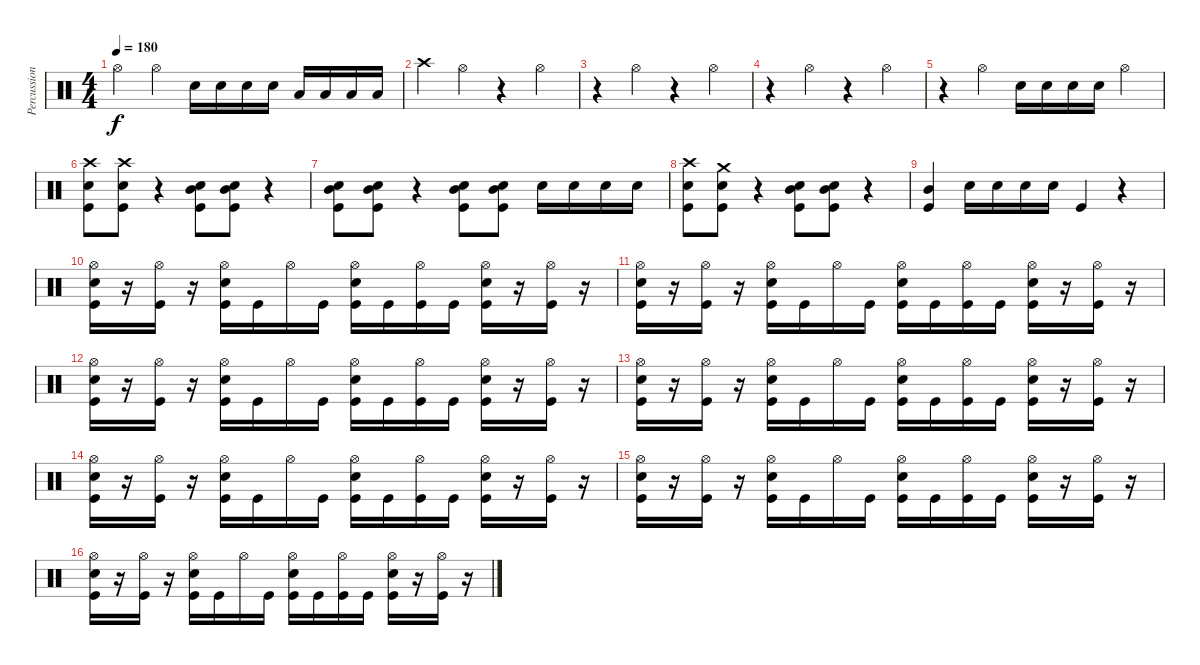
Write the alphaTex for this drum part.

\track ("Percussion" "Percussion") {instrument percussion}
\staff {score}
\articulation defaults
\ts (4 4)
\tempo 180
\clef neutral
\ks c "Hi-Hat (open)".4{dy f} "Hi-Hat (open)".4 "Electric Snare (hit)".16 "Electric Snare (hit)".16 "Electric Snare (hit)".16 "Electric Snare (hit)".16 "Low Tom (hit)".16 "Low Tom (hit)".16 "Low Tom (hit)".16 "Low Tom (hit)".16
|
"Crash high (hit)".4 "Hi-Hat (open)".4 r.4 "Hi-Hat (open)".4 |
r.4 "Hi-Hat (open)".4 r.4 "Hi-Hat (open)".4 |
r.4 "Hi-Hat (open)".4 r.4 "Hi-Hat (open)".4 |
r.4 "Hi-Hat (open)".4 "Snare (hit) 2".16 "Snare (hit) 2".16 "Snare (hit) 2".16 "Snare (hit) 2".16 "Hi-Hat (open)".4 |
("Crash high (hit)" "Snare (hit) 2" "Kick (hit)").8 ("Crash high (hit)" "Snare (hit) 2" "Kick (hit)").8 r.4 ("Mid Tom (hit)" "Snare (hit) 2" "Kick (hit)").8 ("Mid Tom (hit)" "Snare (hit) 2" "Kick (hit)").8 r.4 |
("Mid Tom (hit)" "Snare (hit) 2" "Kick (hit)").8 ("Mid Tom (hit)" "Snare (hit) 2" "Kick (hit)").8 r.4 ("Mid Tom (hit)" "Snare (hit) 2" "Kick (hit)").8 ("Mid Tom (hit)" "Snare (hit) 2" "Kick (hit)").8 "Snare (hit) 2".16 "Snare (hit) 2".16 "Snare (hit) 2".16 "Snare (hit) 2".16 |
("Crash high (hit)" "Snare (hit) 2" "Kick (hit)").8 ("Crash medium (hit)" "Snare (hit) 2" "Kick (hit)").8 r.4 ("Mid Tom (hit)" "Snare (hit) 2" "Kick (hit)").8 ("Mid Tom (hit)" "Snare (hit) 2" "Kick (hit)").8 r.4 |
("Mid Tom (hit)" "Kick (hit)").4 "Snare (hit) 2".16 "Snare (hit) 2".16 "Snare (hit) 2".16 "Snare (hit) 2".16 "Kick (hit)".4 r.4 |
("Hi-Hat (open)" "Snare (hit) 2" "Kick (hit)").16 r.16 ("Hi-Hat (open)" "Kick (hit)").16 r.16 ("Hi-Hat (open)" "Snare (hit) 2" "Kick (hit)").16 "Kick (hit)".16 "Hi-Hat (open)".16 "Kick (hit)".16 ("Hi-Hat (open)" "Snare (hit) 2" "Kick (hit)").16 "Kick (hit)".16 ("Hi-Hat (open)" "Kick (hit)").16 "Kick (hit)".16 ("Hi-Hat (open)" "Snare (hit) 2" "Kick (hit)").16 r.16 ("Hi-Hat (open)" "Kick (hit)").16 r.16 |
("Hi-Hat (open)" "Snare (hit) 2" "Kick (hit)").16 r.16 ("Hi-Hat (open)" "Kick (hit)").16 r.16 ("Hi-Hat (open)" "Snare (hit) 2" "Kick (hit)").16 "Kick (hit)".16 "Hi-Hat (open)".16 "Kick (hit)".16 ("Hi-Hat (open)" "Snare (hit) 2" "Kick (hit)").16 "Kick (hit)".16 ("Hi-Hat (open)" "Kick (hit)").16 "Kick (hit)".16 ("Hi-Hat (open)" "Snare (hit) 2" "Kick (hit)").16 r.16 ("Hi-Hat (open)" "Kick (hit)").16 r.16 |
("Hi-Hat (open)" "Snare (hit) 2" "Kick (hit)").16 r.16 ("Hi-Hat (open)" "Kick (hit)").16 r.16 ("Hi-Hat (open)" "Snare (hit) 2" "Kick (hit)").16 "Kick (hit)".16 "Hi-Hat (open)".16 "Kick (hit)".16 ("Hi-Hat (open)" "Snare (hit) 2" "Kick (hit)").16 "Kick (hit)".16 ("Hi-Hat (open)" "Kick (hit)").16 "Kick (hit)".16 ("Hi-Hat (open)" "Snare (hit) 2" "Kick (hit)").16 r.16 ("Hi-Hat (open)" "Kick (hit)").16 r.16 |
("Hi-Hat (open)" "Snare (hit) 2" "Kick (hit)").16 r.16 ("Hi-Hat (open)" "Kick (hit)").16 r.16 ("Hi-Hat (open)" "Snare (hit) 2" "Kick (hit)").16 "Kick (hit)".16 "Hi-Hat (open)".16 "Kick (hit)".16 ("Hi-Hat (open)" "Snare (hit) 2" "Kick (hit)").16 "Kick (hit)".16 ("Hi-Hat (open)" "Kick (hit)").16 "Kick (hit)".16 ("Hi-Hat (open)" "Snare (hit) 2" "Kick (hit)").16 r.16 ("Hi-Hat (open)" "Kick (hit)").16 r.16 |
("Hi-Hat (open)" "Snare (hit) 2" "Kick (hit)").16 r.16 ("Hi-Hat (open)" "Kick (hit)").16 r.16 ("Hi-Hat (open)" "Snare (hit) 2" "Kick (hit)").16 "Kick (hit)".16 "Hi-Hat (open)".16 "Kick (hit)".16 ("Hi-Hat (open)" "Snare (hit) 2" "Kick (hit)").16 "Kick (hit)".16 ("Hi-Hat (open)" "Kick (hit)").16 "Kick (hit)".16 ("Hi-Hat (open)" "Snare (hit) 2" "Kick (hit)").16 r.16 ("Hi-Hat (open)" "Kick (hit)").16 r.16 |
("Hi-Hat (open)" "Snare (hit) 2" "Kick (hit)").16 r.16 ("Hi-Hat (open)" "Kick (hit)").16 r.16 ("Hi-Hat (open)" "Snare (hit) 2" "Kick (hit)").16 "Kick (hit)".16 "Hi-Hat (open)".16 "Kick (hit)".16 ("Hi-Hat (open)" "Snare (hit) 2" "Kick (hit)").16 "Kick (hit)".16 ("Hi-Hat (open)" "Kick (hit)").16 "Kick (hit)".16 ("Hi-Hat (open)" "Snare (hit) 2" "Kick (hit)").16 r.16 ("Hi-Hat (open)" "Kick (hit)").16 r.16 |
("Hi-Hat (open)" "Snare (hit) 2" "Kick (hit)").16 r.16 ("Hi-Hat (open)" "Kick (hit)").16 r.16 ("Hi-Hat (open)" "Snare (hit) 2" "Kick (hit)").16 "Kick (hit)".16 "Hi-Hat (open)".16 "Kick (hit)".16 ("Hi-Hat (open)" "Snare (hit) 2" "Kick (hit)").16 "Kick (hit)".16 ("Hi-Hat (open)" "Kick (hit)").16 "Kick (hit)".16 ("Hi-Hat (open)" "Snare (hit) 2" "Kick (hit)").16 r.16 ("Hi-Hat (open)" "Kick (hit)").16 r.16
